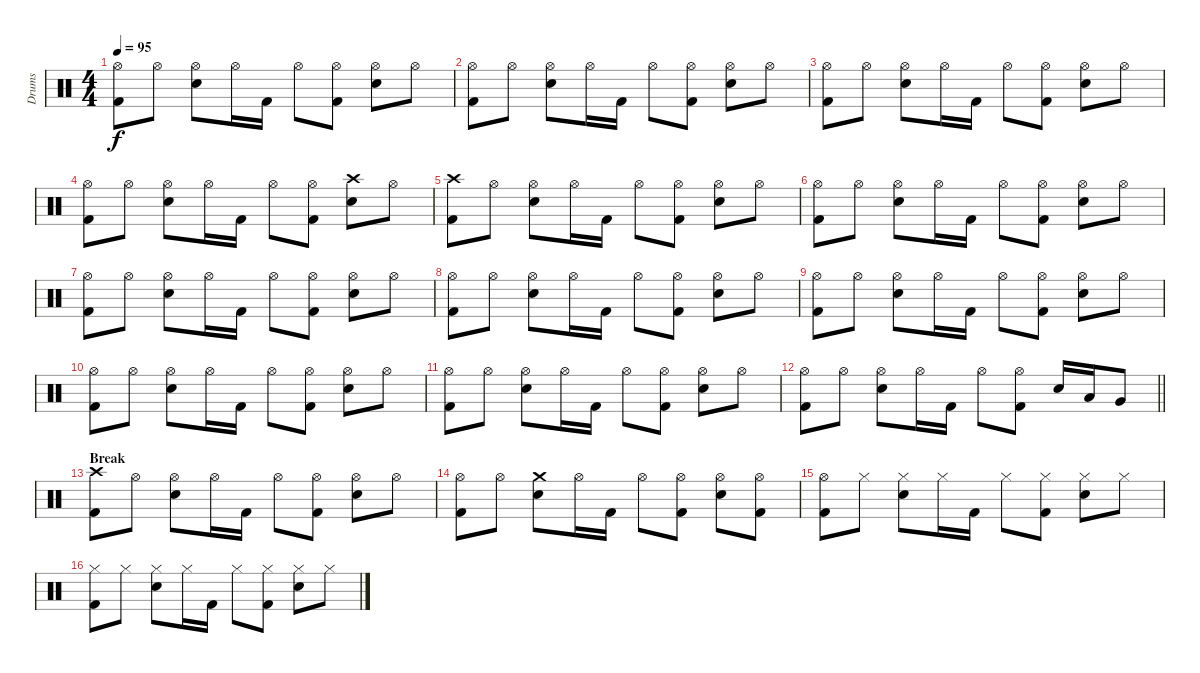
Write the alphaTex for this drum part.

\track ("Drums" "Drums") {instrument percussion}
\staff {score}
\articulation defaults
\ts (4 4)
\tempo 95
\clef neutral
\ks c
("Hi-Hat (open)" "Kick (hit) 2").8{dy f} "Hi-Hat (open)".8 ("Hi-Hat (open)" "Electric Snare (hit)").8 "Hi-Hat (open)".16 "Kick (hit) 2".16 "Hi-Hat (open)".8 ("Hi-Hat (open)" "Kick (hit) 2").8 ("Hi-Hat (open)" "Electric Snare (hit)").8 "Hi-Hat (open)".8 |
("Hi-Hat (open)" "Kick (hit) 2").8 "Hi-Hat (open)".8 ("Hi-Hat (open)" "Electric Snare (hit)").8 "Hi-Hat (open)".16 "Kick (hit) 2".16 "Hi-Hat (open)".8 ("Hi-Hat (open)" "Kick (hit) 2").8 ("Hi-Hat (open)" "Electric Snare (hit)").8 "Hi-Hat (open)".8 |
("Hi-Hat (open)" "Kick (hit) 2").8 "Hi-Hat (open)".8 ("Hi-Hat (open)" "Electric Snare (hit)").8 "Hi-Hat (open)".16 "Kick (hit) 2".16 "Hi-Hat (open)".8 ("Hi-Hat (open)" "Kick (hit) 2").8 ("Hi-Hat (open)" "Electric Snare (hit)").8 "Hi-Hat (open)".8 |
("Hi-Hat (open)" "Kick (hit) 2").8 "Hi-Hat (open)".8 ("Hi-Hat (open)" "Electric Snare (hit)").8 "Hi-Hat (open)".16 "Kick (hit) 2".16 "Hi-Hat (open)".8 ("Hi-Hat (open)" "Kick (hit) 2").8 ("Crash high (hit)" "Electric Snare (hit)").8 "Hi-Hat (open)".8 |
("Crash high (hit)" "Kick (hit) 2").8 "Hi-Hat (open)".8 ("Hi-Hat (open)" "Electric Snare (hit)").8 "Hi-Hat (open)".16 "Kick (hit) 2".16 "Hi-Hat (open)".8 ("Hi-Hat (open)" "Kick (hit) 2").8 ("Hi-Hat (open)" "Electric Snare (hit)").8 "Hi-Hat (open)".8 |
("Hi-Hat (open)" "Kick (hit) 2").8 "Hi-Hat (open)".8 ("Hi-Hat (open)" "Electric Snare (hit)").8 "Hi-Hat (open)".16 "Kick (hit) 2".16 "Hi-Hat (open)".8 ("Hi-Hat (open)" "Kick (hit) 2").8 ("Hi-Hat (open)" "Electric Snare (hit)").8 "Hi-Hat (open)".8 |
("Hi-Hat (open)" "Kick (hit) 2").8 "Hi-Hat (open)".8 ("Hi-Hat (open)" "Electric Snare (hit)").8 "Hi-Hat (open)".16 "Kick (hit) 2".16 "Hi-Hat (open)".8 ("Hi-Hat (open)" "Kick (hit) 2").8 ("Hi-Hat (open)" "Electric Snare (hit)").8 "Hi-Hat (open)".8 |
("Hi-Hat (open)" "Kick (hit) 2").8 "Hi-Hat (open)".8 ("Hi-Hat (open)" "Electric Snare (hit)").8 "Hi-Hat (open)".16 "Kick (hit) 2".16 "Hi-Hat (open)".8 ("Hi-Hat (open)" "Kick (hit) 2").8 ("Hi-Hat (open)" "Electric Snare (hit)").8 "Hi-Hat (open)".8 |
("Hi-Hat (open)" "Kick (hit) 2").8 "Hi-Hat (open)".8 ("Hi-Hat (open)" "Electric Snare (hit)").8 "Hi-Hat (open)".16 "Kick (hit) 2".16 "Hi-Hat (open)".8 ("Hi-Hat (open)" "Kick (hit) 2").8 ("Hi-Hat (open)" "Electric Snare (hit)").8 "Hi-Hat (open)".8 |
("Hi-Hat (open)" "Kick (hit) 2").8 "Hi-Hat (open)".8 ("Hi-Hat (open)" "Electric Snare (hit)").8 "Hi-Hat (open)".16 "Kick (hit) 2".16 "Hi-Hat (open)".8 ("Hi-Hat (open)" "Kick (hit) 2").8 ("Hi-Hat (open)" "Electric Snare (hit)").8 "Hi-Hat (open)".8 |
("Hi-Hat (open)" "Kick (hit) 2").8 "Hi-Hat (open)".8 ("Hi-Hat (open)" "Electric Snare (hit)").8 "Hi-Hat (open)".16 "Kick (hit) 2".16 "Hi-Hat (open)".8 ("Hi-Hat (open)" "Kick (hit) 2").8 ("Hi-Hat (open)" "Electric Snare (hit)").8 "Hi-Hat (open)".8 |
\barLineRight lightlight
("Hi-Hat (open)" "Kick (hit) 2").8 "Hi-Hat (open)".8 ("Hi-Hat (open)" "Electric Snare (hit)").8 "Hi-Hat (open)".16 "Kick (hit) 2".16 "Hi-Hat (open)".8 ("Hi-Hat (open)" "Kick (hit) 2").8 "Electric Snare (hit)".16 "Low Tom (hit)".16 "Very Low Tom (hit)".8 |
\section ("" "Break")
("Crash high (hit)" "Kick (hit) 2").8 "Hi-Hat (open)".8 ("Hi-Hat (open)" "Electric Snare (hit)").8 "Hi-Hat (open)".16 "Kick (hit) 2".16 "Hi-Hat (open)".8 ("Hi-Hat (open)" "Kick (hit) 2").8 ("Hi-Hat (open)" "Electric Snare (hit)").8 "Hi-Hat (open)".8 |
("Hi-Hat (open)" "Kick (hit) 2").8 "Hi-Hat (open)".8 ("Crash medium (hit)" "Electric Snare (hit)").8 "Hi-Hat (open)".16 "Kick (hit) 2".16 "Hi-Hat (open)".8 ("Hi-Hat (open)" "Kick (hit) 2").8 ("Hi-Hat (open)" "Electric Snare (hit)").8 ("Hi-Hat (open)" "Kick (hit) 2").8 |
("Hi-Hat (open)" "Kick (hit) 2").8 "Hi-Hat (closed)".8 ("Hi-Hat (closed)" "Electric Snare (hit)").8 "Hi-Hat (closed)".16 "Kick (hit) 2".16 "Hi-Hat (closed)".8 ("Hi-Hat (closed)" "Kick (hit) 2").8 ("Hi-Hat (closed)" "Electric Snare (hit)").8 "Hi-Hat (closed)".8 |
("Hi-Hat (closed)" "Kick (hit) 2").8 "Hi-Hat (closed)".8 ("Hi-Hat (closed)" "Electric Snare (hit)").8 "Hi-Hat (closed)".16 "Kick (hit) 2".16 "Hi-Hat (closed)".8 ("Hi-Hat (closed)" "Kick (hit) 2").8 ("Hi-Hat (closed)" "Electric Snare (hit)").8 "Hi-Hat (closed)".8
